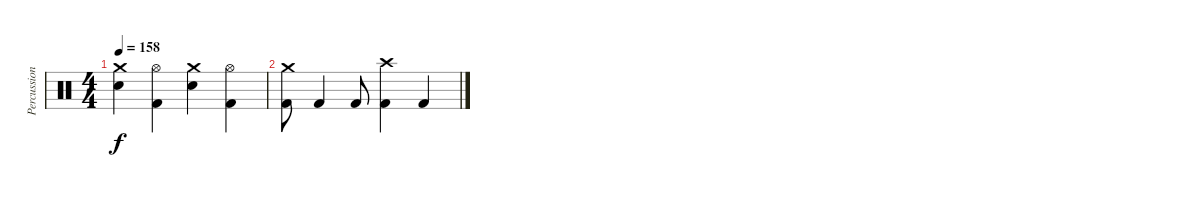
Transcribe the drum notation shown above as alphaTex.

\track ("Percussion" "Percussion") {instrument percussion}
\staff {score}
\articulation defaults
\ts (4 4)
\tempo 158
\clef neutral
\ks c
("Crash medium (hit)" "Snare (hit) 2").4{dy f} ("Hi-Hat (open)" "Kick (hit) 2").4 ("Crash medium (hit)" "Snare (hit) 2").4 ("Hi-Hat (open)" "Kick (hit) 2").4 |
("Crash medium (hit)" "Kick (hit) 2").8 "Kick (hit) 2".4 "Kick (hit) 2".8 ("Crash high (hit)" "Kick (hit) 2").4 "Kick (hit) 2".4
